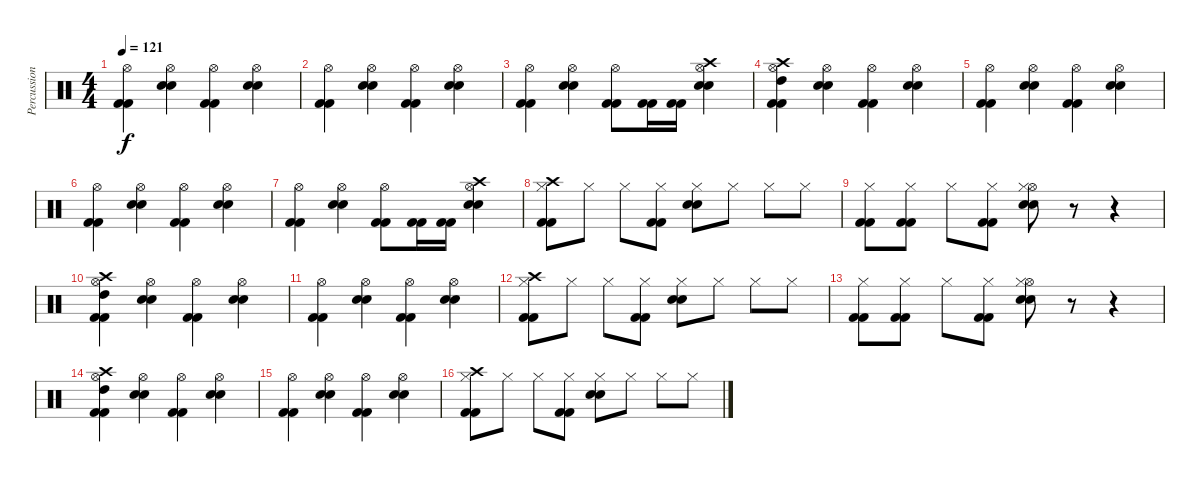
\track ("Percussion" "Percussion") {instrument percussion}
\staff {score}
\articulation defaults
\ts (4 4)
\tempo 121
\clef neutral
\ks c
("Hi-Hat (open)" "Kick (hit) 2" "Kick (hit) 2").4{dy f} ("Hi-Hat (open)" "Electric Snare (hit)" "Electric Snare (hit)").4 ("Hi-Hat (open)" "Kick (hit) 2" "Kick (hit) 2").4 ("Hi-Hat (open)" "Electric Snare (hit)" "Electric Snare (hit)").4 |
("Hi-Hat (open)" "Kick (hit) 2" "Kick (hit) 2").4 ("Hi-Hat (open)" "Electric Snare (hit)" "Electric Snare (hit)").4 ("Hi-Hat (open)" "Kick (hit) 2" "Kick (hit) 2").4 ("Hi-Hat (open)" "Electric Snare (hit)" "Electric Snare (hit)").4 |
("Hi-Hat (open)" "Kick (hit) 2" "Kick (hit) 2").4 ("Hi-Hat (open)" "Electric Snare (hit)" "Electric Snare (hit)").4 ("Hi-Hat (open)" "Kick (hit) 2" "Kick (hit) 2").8 ("Kick (hit) 2" "Kick (hit) 2").16 ("Kick (hit) 2" "Kick (hit) 2").16 ("Crash high (hit)" "Hi-Hat (open)" "Electric Snare (hit)" "Electric Snare (hit)").4 |
("Crash high (hit)" "High Tom (hit)" "Hi-Hat (open)" "Kick (hit) 2" "Kick (hit) 2").4 ("Hi-Hat (open)" "Electric Snare (hit)" "Electric Snare (hit)").4 ("Hi-Hat (open)" "Kick (hit) 2" "Kick (hit) 2").4 ("Hi-Hat (open)" "Electric Snare (hit)" "Electric Snare (hit)").4 |
("Hi-Hat (open)" "Kick (hit) 2" "Kick (hit) 2").4 ("Hi-Hat (open)" "Electric Snare (hit)" "Electric Snare (hit)").4 ("Hi-Hat (open)" "Kick (hit) 2" "Kick (hit) 2").4 ("Hi-Hat (open)" "Electric Snare (hit)" "Electric Snare (hit)").4 |
("Hi-Hat (open)" "Kick (hit) 2" "Kick (hit) 2").4 ("Hi-Hat (open)" "Electric Snare (hit)" "Electric Snare (hit)").4 ("Hi-Hat (open)" "Kick (hit) 2" "Kick (hit) 2").4 ("Hi-Hat (open)" "Electric Snare (hit)" "Electric Snare (hit)").4 |
("Hi-Hat (open)" "Kick (hit) 2" "Kick (hit) 2").4 ("Hi-Hat (open)" "Electric Snare (hit)" "Electric Snare (hit)").4 ("Hi-Hat (open)" "Kick (hit) 2" "Kick (hit) 2").8 ("Kick (hit) 2" "Kick (hit) 2").16 ("Kick (hit) 2" "Kick (hit) 2").16 ("Crash high (hit)" "Hi-Hat (open)" "Electric Snare (hit)" "Electric Snare (hit)").4 |
("Crash high (hit)" "Hi-Hat (closed)" "Kick (hit) 2" "Kick (hit) 2").8 "Hi-Hat (closed)".8 "Hi-Hat (closed)".8 ("Hi-Hat (closed)" "Kick (hit) 2" "Kick (hit) 2").8 ("Hi-Hat (closed)" "Electric Snare (hit)" "Electric Snare (hit)").8 "Hi-Hat (closed)".8 "Hi-Hat (closed)".8 "Hi-Hat (closed)".8 |
("Hi-Hat (closed)" "Kick (hit) 2" "Kick (hit) 2").8 ("Hi-Hat (closed)" "Kick (hit) 2" "Kick (hit) 2").8 "Hi-Hat (closed)".8 ("Hi-Hat (closed)" "Kick (hit) 2" "Kick (hit) 2").8 ("Hi-Hat (open)" "Hi-Hat (closed)" "Electric Snare (hit)" "Electric Snare (hit)").8 r.8 r.4 |
("Crash high (hit)" "High Tom (hit)" "Hi-Hat (open)" "Kick (hit) 2" "Kick (hit) 2").4 ("Hi-Hat (open)" "Electric Snare (hit)" "Electric Snare (hit)").4 ("Hi-Hat (open)" "Kick (hit) 2" "Kick (hit) 2").4 ("Hi-Hat (open)" "Electric Snare (hit)" "Electric Snare (hit)").4 |
("Hi-Hat (open)" "Kick (hit) 2" "Kick (hit) 2").4 ("Hi-Hat (open)" "Electric Snare (hit)" "Electric Snare (hit)").4 ("Hi-Hat (open)" "Kick (hit) 2" "Kick (hit) 2").4 ("Hi-Hat (open)" "Electric Snare (hit)" "Electric Snare (hit)").4 |
("Crash high (hit)" "Hi-Hat (closed)" "Kick (hit) 2" "Kick (hit) 2").8 "Hi-Hat (closed)".8 "Hi-Hat (closed)".8 ("Hi-Hat (closed)" "Kick (hit) 2" "Kick (hit) 2").8 ("Hi-Hat (closed)" "Electric Snare (hit)" "Electric Snare (hit)").8 "Hi-Hat (closed)".8 "Hi-Hat (closed)".8 "Hi-Hat (closed)".8 |
("Hi-Hat (closed)" "Kick (hit) 2" "Kick (hit) 2").8 ("Hi-Hat (closed)" "Kick (hit) 2" "Kick (hit) 2").8 "Hi-Hat (closed)".8 ("Hi-Hat (closed)" "Kick (hit) 2" "Kick (hit) 2").8 ("Hi-Hat (open)" "Hi-Hat (closed)" "Electric Snare (hit)" "Electric Snare (hit)").8 r.8 r.4 |
("Crash high (hit)" "High Tom (hit)" "Hi-Hat (open)" "Kick (hit) 2" "Kick (hit) 2").4 ("Hi-Hat (open)" "Electric Snare (hit)" "Electric Snare (hit)").4 ("Hi-Hat (open)" "Kick (hit) 2" "Kick (hit) 2").4 ("Hi-Hat (open)" "Electric Snare (hit)" "Electric Snare (hit)").4 |
("Hi-Hat (open)" "Kick (hit) 2" "Kick (hit) 2").4 ("Hi-Hat (open)" "Electric Snare (hit)" "Electric Snare (hit)").4 ("Hi-Hat (open)" "Kick (hit) 2" "Kick (hit) 2").4 ("Hi-Hat (open)" "Electric Snare (hit)" "Electric Snare (hit)").4 |
("Crash high (hit)" "Hi-Hat (closed)" "Kick (hit) 2" "Kick (hit) 2").8 "Hi-Hat (closed)".8 "Hi-Hat (closed)".8 ("Hi-Hat (closed)" "Kick (hit) 2" "Kick (hit) 2").8 ("Hi-Hat (closed)" "Electric Snare (hit)" "Electric Snare (hit)").8 "Hi-Hat (closed)".8 "Hi-Hat (closed)".8 "Hi-Hat (closed)".8
